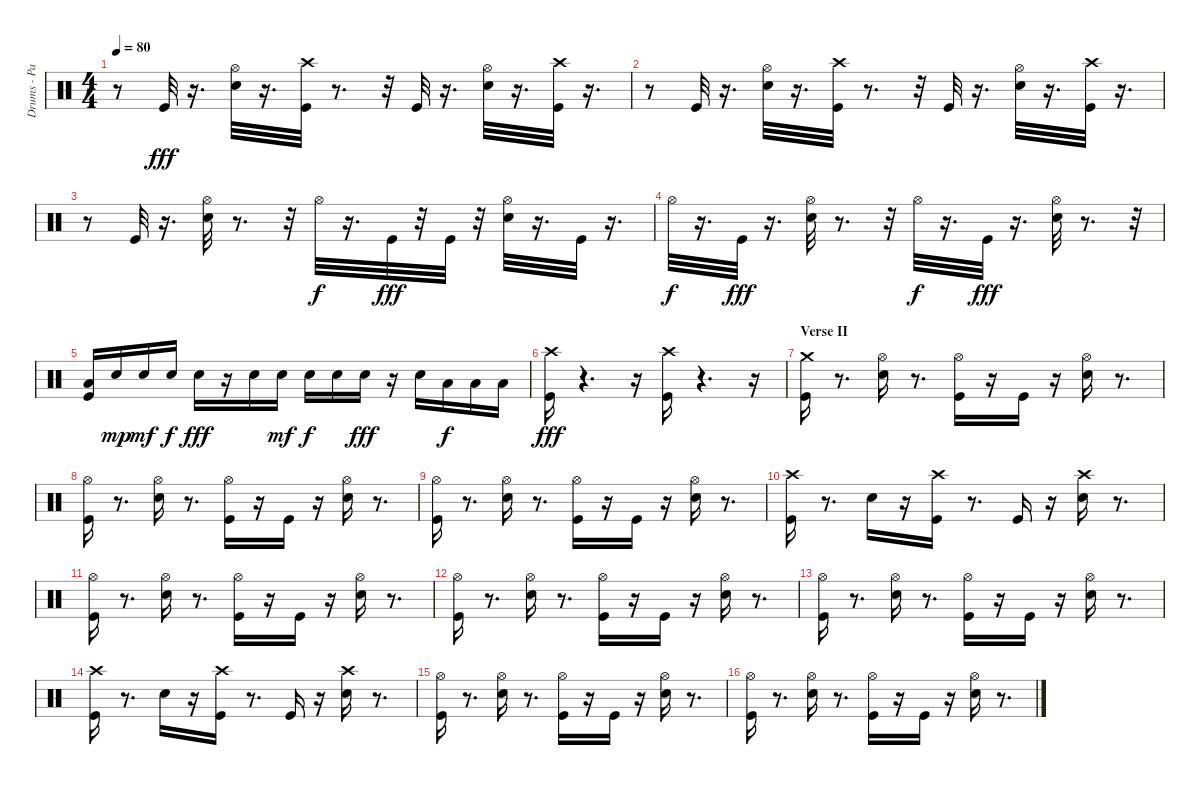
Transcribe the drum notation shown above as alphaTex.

\track ("Drums - Paice" "Drums - Pa") {instrument percussion}
\staff {score}
\articulation defaults
\ts (4 4)
\tempo 80
\clef neutral
\ks c
r.8{dy fff} "Kick (hit)".32 r.16{d} ("Hi-Hat (open)" "Snare (hit) 2").32 r.16{d} ("Crash high (hit)" "Kick (hit)").32 r.8{d} r.32 "Kick (hit)".32 r.16{d} ("Hi-Hat (open)" "Snare (hit) 2").32 r.16{d} ("Crash high (hit)" "Kick (hit)").32 r.16{d} |
r.8 "Kick (hit)".32 r.16{d} ("Snare (hit) 2" "Hi-Hat (open)").32 r.16{d} ("Crash high (hit)" "Kick (hit)").32 r.8{d} r.32 "Kick (hit)".32 r.16{d} ("Hi-Hat (open)" "Snare (hit) 2").32 r.16{d} ("Crash high (hit)" "Kick (hit)").32 r.16{d} |
r.8 "Kick (hit)".32 r.16{d} ("Snare (hit) 2" "Hi-Hat (open)").32 r.8{d} r.32 "Hi-Hat (open)".32{dy f} r.16{d} "Kick (hit)".32{dy fff} r.32 "Kick (hit)".32 r.32 ("Snare (hit) 2" "Hi-Hat (open)").32 r.16{d} "Kick (hit)".32 r.16{d} |
"Hi-Hat (open)".32{dy f} r.16{d} "Kick (hit)".32{dy fff} r.16{d} ("Snare (hit) 2" "Hi-Hat (open)").32 r.8{d} r.32 "Hi-Hat (open)".32{dy f} r.16{d} "Kick (hit)".32{dy fff} r.16{d} ("Snare (hit) 2" "Hi-Hat (open)").32 r.8{d} r.32 |
("Kick (hit)" "Low Tom (hit)").16 "Snare (hit) 2".16{dy mp} "Snare (hit) 2".16{dy mf} "Snare (hit) 2".16{dy f} "Snare (hit) 2".16{dy fff} r.16 "Snare (hit) 2".16 "Snare (hit) 2".16{dy mf} "Snare (hit) 2".16{dy f} "Snare (hit) 2".16 "Snare (hit) 2".16{dy fff} r.16 "Snare (hit) 2".16 "Low Tom (hit)".16{dy f} "Low Tom (hit)".16 "Low Tom (hit)".16 |
("Kick (hit)" "Crash high (hit)").16{dy fff} r.4{d} r.16 ("Kick (hit)" "Crash high (hit)").16 r.4{d} r.16 |
\section ("" "Verse II")
("Kick (hit)" "Crash medium (hit)").16 r.8{d} ("Snare (hit) 2" "Hi-Hat (open)").16 r.8{d} ("Kick (hit)" "Hi-Hat (open)").16 r.16 "Kick (hit)".16 r.16 ("Hi-Hat (open)" "Snare (hit) 2").16 r.8{d} |
("Hi-Hat (open)" "Kick (hit)").16 r.8{d} ("Snare (hit) 2" "Hi-Hat (open)").16 r.8{d} ("Kick (hit)" "Hi-Hat (open)").16 r.16 "Kick (hit)".16 r.16 ("Snare (hit) 2" "Hi-Hat (open)").16 r.8{d} |
("Hi-Hat (open)" "Kick (hit)").16 r.8{d} ("Hi-Hat (open)" "Snare (hit) 2").16 r.8{d} ("Hi-Hat (open)" "Kick (hit)").16 r.16 "Kick (hit)".16 r.16 ("Snare (hit) 2" "Hi-Hat (open)").16 r.8{d} |
("Crash high (hit)" "Kick (hit)").16 r.8{d} "Snare (hit) 2".16 r.16 ("Crash high (hit)" "Kick (hit)").16 r.8{d} "Kick (hit)".16 r.16 ("Crash high (hit)" "Snare (hit) 2").16 r.8{d} |
("Hi-Hat (open)" "Kick (hit)").16 r.8{d} ("Hi-Hat (open)" "Snare (hit) 2").16 r.8{d} ("Hi-Hat (open)" "Kick (hit)").16 r.16 "Kick (hit)".16 r.16 ("Hi-Hat (open)" "Snare (hit) 2").16 r.8{d} |
("Kick (hit)" "Hi-Hat (open)").16 r.8{d} ("Hi-Hat (open)" "Snare (hit) 2").16 r.8{d} ("Hi-Hat (open)" "Kick (hit)").16 r.16 "Kick (hit)".16 r.16 ("Hi-Hat (open)" "Snare (hit) 2").16 r.8{d} |
("Kick (hit)" "Hi-Hat (open)").16 r.8{d} ("Hi-Hat (open)" "Snare (hit) 2").16 r.8{d} ("Hi-Hat (open)" "Kick (hit)").16 r.16 "Kick (hit)".16 r.16 ("Hi-Hat (open)" "Snare (hit) 2").16 r.8{d} |
("Kick (hit)" "Crash high (hit)").16 r.8{d} "Snare (hit) 2".16 r.16 ("Crash high (hit)" "Kick (hit)").16 r.8{d} "Kick (hit)".16 r.16 ("Crash high (hit)" "Snare (hit) 2").16 r.8{d} |
("Hi-Hat (open)" "Kick (hit)").16 r.8{d} ("Snare (hit) 2" "Hi-Hat (open)").16 r.8{d} ("Hi-Hat (open)" "Kick (hit)").16 r.16 "Kick (hit)".16 r.16 ("Snare (hit) 2" "Hi-Hat (open)").16 r.8{d} |
("Hi-Hat (open)" "Kick (hit)").16 r.8{d} ("Snare (hit) 2" "Hi-Hat (open)").16 r.8{d} ("Hi-Hat (open)" "Kick (hit)").16 r.16 "Kick (hit)".16 r.16 ("Hi-Hat (open)" "Snare (hit) 2").16 r.8{d}
